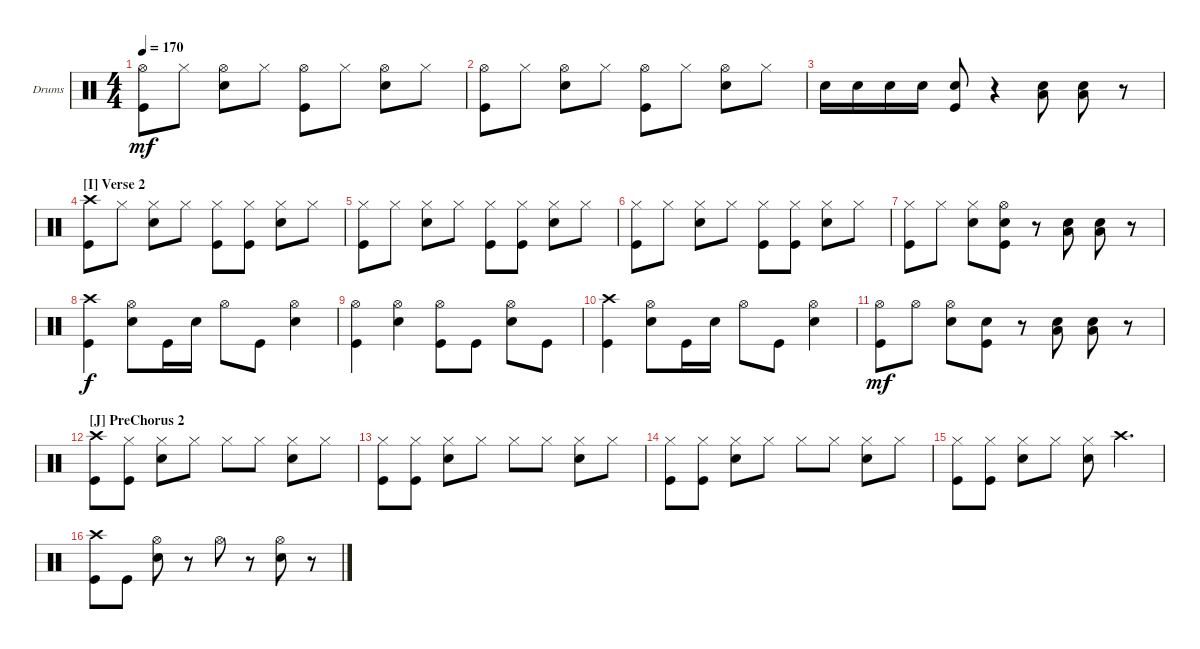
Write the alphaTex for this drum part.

\defaultSystemsLayout 4
\bracketExtendMode groupsimilarinstruments
\firstSystemTrackNameOrientation horizontal
\otherSystemsTrackNameOrientation horizontal
\track ("Drumkit" "Drums") {instrument percussion}
\staff {score}
\articulation defaults
\ts (4 4)
\tempo 170
\clef neutral
\ks c
("Kick (hit)" "Hi-Hat (open)").8{dy mf} "Hi-Hat (closed)".8 ("Hi-Hat (open)" "Snare (hit) 2").8 "Hi-Hat (closed)".8 ("Hi-Hat (open)" "Kick (hit)").8 "Hi-Hat (closed)".8 ("Hi-Hat (open)" "Snare (hit) 2").8 "Hi-Hat (closed)".8 |
("Kick (hit)" "Hi-Hat (open)").8 "Hi-Hat (closed)".8 ("Hi-Hat (open)" "Snare (hit) 2").8 "Hi-Hat (closed)".8 ("Hi-Hat (open)" "Kick (hit)").8 "Hi-Hat (closed)".8 ("Hi-Hat (open)" "Snare (hit) 2").8 "Hi-Hat (closed)".8 |
"Snare (hit) 2".16 "Snare (hit) 2".16 "Snare (hit) 2".16 "Snare (hit) 2".16 ("Snare (hit) 2" "Kick (hit)").8 r.4 ("Snare (hit) 2" "Low Tom (hit)").8 ("Snare (hit) 2" "Low Tom (hit)").8 r.8 |
\section ("I" "Verse 2")
("Kick (hit)" "Crash high (hit)").8 "Hi-Hat (closed)".8 ("Hi-Hat (closed)" "Snare (hit) 2").8 "Hi-Hat (closed)".8 ("Hi-Hat (closed)" "Kick (hit)").8 ("Hi-Hat (closed)" "Kick (hit)").8 ("Hi-Hat (closed)" "Snare (hit) 2").8 "Hi-Hat (closed)".8 |
("Kick (hit)" "Hi-Hat (closed)").8 "Hi-Hat (closed)".8 ("Hi-Hat (closed)" "Snare (hit) 2").8 "Hi-Hat (closed)".8 ("Hi-Hat (closed)" "Kick (hit)").8 ("Hi-Hat (closed)" "Kick (hit)").8 ("Hi-Hat (closed)" "Snare (hit) 2").8 "Hi-Hat (closed)".8 |
("Kick (hit)" "Hi-Hat (closed)").8 "Hi-Hat (closed)".8 ("Hi-Hat (closed)" "Snare (hit) 2").8 "Hi-Hat (closed)".8 ("Hi-Hat (closed)" "Kick (hit)").8 ("Hi-Hat (closed)" "Kick (hit)").8 ("Hi-Hat (closed)" "Snare (hit) 2").8 "Hi-Hat (closed)".8 |
("Kick (hit)" "Hi-Hat (closed)").8 "Hi-Hat (closed)".8 ("Hi-Hat (closed)" "Snare (hit) 2").8 ("Snare (hit) 2" "Kick (hit)" "Hi-Hat (open)").8 r.8 ("Snare (hit) 2" "Low Tom (hit)").8 ("Snare (hit) 2" "Low Tom (hit)").8 r.8 |
("Crash high (hit)" "Kick (hit)").4{dy f} ("Hi-Hat (open)" "Snare (hit) 2").8 "Kick (hit)".16 "Snare (hit) 2".16 "Hi-Hat (open)".8 "Kick (hit)".8 ("Hi-Hat (open)" "Snare (hit) 2").4 |
("Hi-Hat (open)" "Kick (hit)").4 ("Hi-Hat (open)" "Snare (hit) 2").4 ("Hi-Hat (open)" "Kick (hit)").8 "Kick (hit)".8 ("Hi-Hat (open)" "Snare (hit) 2").8 "Kick (hit)".8 |
("Crash high (hit)" "Kick (hit)").4 ("Hi-Hat (open)" "Snare (hit) 2").8 "Kick (hit)".16 "Snare (hit) 2".16 "Hi-Hat (open)".8 "Kick (hit)".8 ("Hi-Hat (open)" "Snare (hit) 2").4 |
("Kick (hit)" "Hi-Hat (open)").8{dy mf} "Hi-Hat (open)".8 ("Hi-Hat (open)" "Snare (hit) 2").8 ("Snare (hit) 2" "Kick (hit)").8 r.8 ("Snare (hit) 2" "Low Tom (hit)").8 ("Snare (hit) 2" "Low Tom (hit)").8 r.8 |
\section ("J" "PreChorus 2")
("Crash high (hit)" "Kick (hit)").8 ("Hi-Hat (closed)" "Kick (hit)").8 ("Hi-Hat (closed)" "Snare (hit) 2").8 "Hi-Hat (closed)".8 "Hi-Hat (closed)".8 "Hi-Hat (closed)".8 ("Hi-Hat (closed)" "Snare (hit) 2").8 "Hi-Hat (closed)".8 |
("Kick (hit)" "Hi-Hat (closed)").8 ("Hi-Hat (closed)" "Kick (hit)").8 ("Hi-Hat (closed)" "Snare (hit) 2").8 "Hi-Hat (closed)".8 "Hi-Hat (closed)".8 "Hi-Hat (closed)".8 ("Hi-Hat (closed)" "Snare (hit) 2").8 "Hi-Hat (closed)".8 |
("Kick (hit)" "Hi-Hat (closed)").8 ("Hi-Hat (closed)" "Kick (hit)").8 ("Hi-Hat (closed)" "Snare (hit) 2").8 "Hi-Hat (closed)".8 "Hi-Hat (closed)".8 "Hi-Hat (closed)".8 ("Hi-Hat (closed)" "Snare (hit) 2").8 "Hi-Hat (closed)".8 |
("Kick (hit)" "Hi-Hat (closed)").8 ("Hi-Hat (closed)" "Kick (hit)").8 ("Hi-Hat (closed)" "Snare (hit) 2").8 "Hi-Hat (closed)".8 ("Hi-Hat (closed)" "Snare (hit) 2").8 "Crash high (hit)".4{d} |
("Crash high (hit)" "Kick (hit)").8 "Kick (hit)".8 ("Hi-Hat (open)" "Snare (hit) 2").8 r.8 "Hi-Hat (open)".8 r.8 ("Hi-Hat (open)" "Snare (hit) 2").8 r.8
